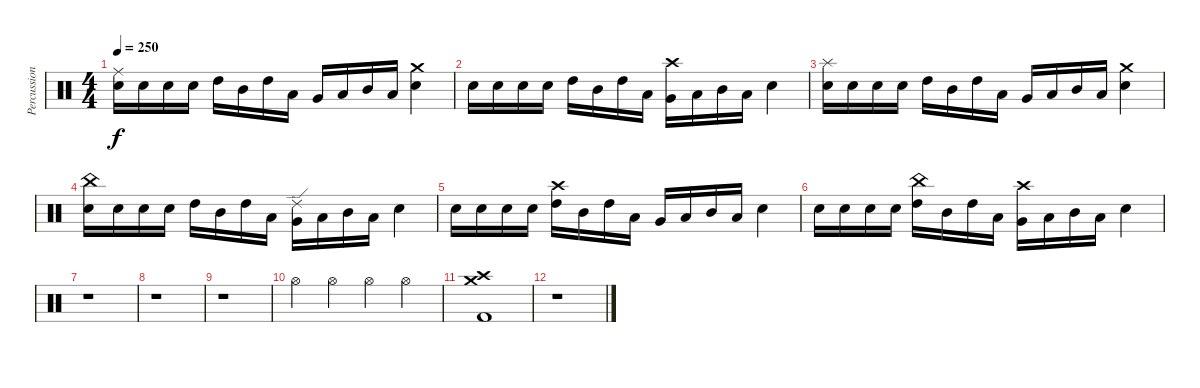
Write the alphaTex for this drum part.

\track ("Percussion" "Percussion") {instrument percussion}
\staff {score}
\articulation defaults
\ts (4 4)
\tempo 250
\clef neutral
\ks c
("Ride (middle)" "Snare (hit) 2").16{dy f} "Snare (hit) 2".16 "Snare (hit) 2".16 "Snare (hit) 2".16 "High Tom (hit)".16 "Mid Tom (hit)".16 "High Tom (hit)".16 "Low Tom (hit)".16 "Very Low Tom (hit)".16 "Low Floor Tom (hit)".16 "Mid Tom (hit)".16 "Low Floor Tom (hit)".16 ("Crash medium (hit)" "Snare (hit) 2").4 |
"Snare (hit) 2".16 "Snare (hit) 2".16 "Snare (hit) 2".16 "Snare (hit) 2".16 "High Tom (hit)".16 "Mid Tom (hit)".16 "High Tom (hit)".16 "Low Tom (hit)".16 ("Crash high (hit)" "Very Low Tom (hit)").16 "Low Floor Tom (hit)".16 "Mid Tom (hit)".16 "Low Floor Tom (hit)".16 "Snare (hit) 2".4 |
("Splash (hit)" "Snare (hit) 2").16 "Snare (hit) 2".16 "Snare (hit) 2".16 "Snare (hit) 2".16 "High Tom (hit)".16 "Mid Tom (hit)".16 "High Tom (hit)".16 "Low Tom (hit)".16 "Very Low Tom (hit)".16 "Low Floor Tom (hit)".16 "Mid Tom (hit)".16 "Low Floor Tom (hit)".16 ("Crash medium (hit)" "Snare (hit) 2").4 |
("China (hit)" "Snare (hit) 2").16 "Snare (hit) 2".16 "Snare (hit) 2".16 "Snare (hit) 2".16 "High Tom (hit)".16 "Mid Tom (hit)".16 "High Tom (hit)".16 "Low Tom (hit)".16 ("Ride (edge) 2" "Very Low Tom (hit)").16 "Low Floor Tom (hit)".16 "Mid Tom (hit)".16 "Low Floor Tom (hit)".16 "Snare (hit) 2".4 |
"Snare (hit) 2".16 "Snare (hit) 2".16 "Snare (hit) 2".16 "Snare (hit) 2".16 ("Crash high (hit)" "High Tom (hit)").16 "Mid Tom (hit)".16 "High Tom (hit)".16 "Low Tom (hit)".16 "Very Low Tom (hit)".16 "Low Floor Tom (hit)".16 "Mid Tom (hit)".16 "Low Floor Tom (hit)".16 "Snare (hit) 2".4 |
"Snare (hit) 2".16 "Snare (hit) 2".16 "Snare (hit) 2".16 "Snare (hit) 2".16 ("China (hit)" "High Tom (hit)").16 "Mid Tom (hit)".16 "High Tom (hit)".16 "Low Tom (hit)".16 ("Crash high (hit)" "Very Low Tom (hit)").16 "Low Floor Tom (hit)".16 "Mid Tom (hit)".16 "Low Floor Tom (hit)".16 "Snare (hit) 2".4 |
r.1 |
r.1 |
r.1 |
"Hi-Hat (open)".4 "Hi-Hat (open)".4 "Hi-Hat (open)".4 "Hi-Hat (open)".4 |
("Crash high (hit)" "Crash medium (hit)" "Kick (hit) 2").1 |
r.1
